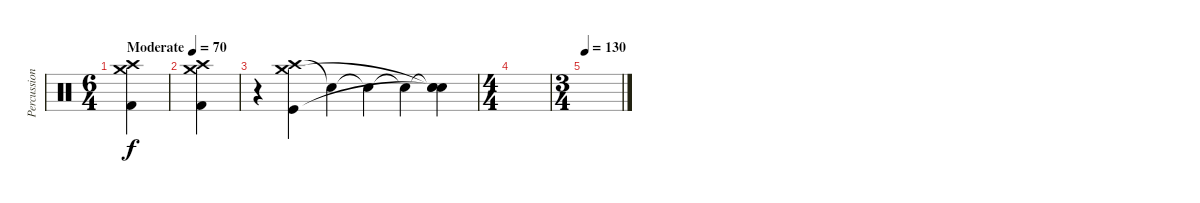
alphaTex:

\track ("Percussion" "Percussion") {instrument percussion}
\staff {score}
\articulation defaults
\ts (6 4)
\tempo (70 "Moderate")
\clef neutral
\ks c
("Kick (hit) 2" "Crash high (hit)" "Crash medium (hit)").4{dy f} |
("Kick (hit) 2" "Crash high (hit)" "Crash medium (hit)").4 |
r.4 ("Crash high (hit)" "Crash medium (hit)" "Kick (hit)").4 "Snare (hit)"{t}.4 "Snare (hit)"{t}.4 "Snare (hit)"{t}.4 ("Snare (hit)"{t} "Snare (hit)"{t} "Snare (hit)"{t}).4 |
\ts (4 4)
|
\ts (3 4)
\tempo 130
